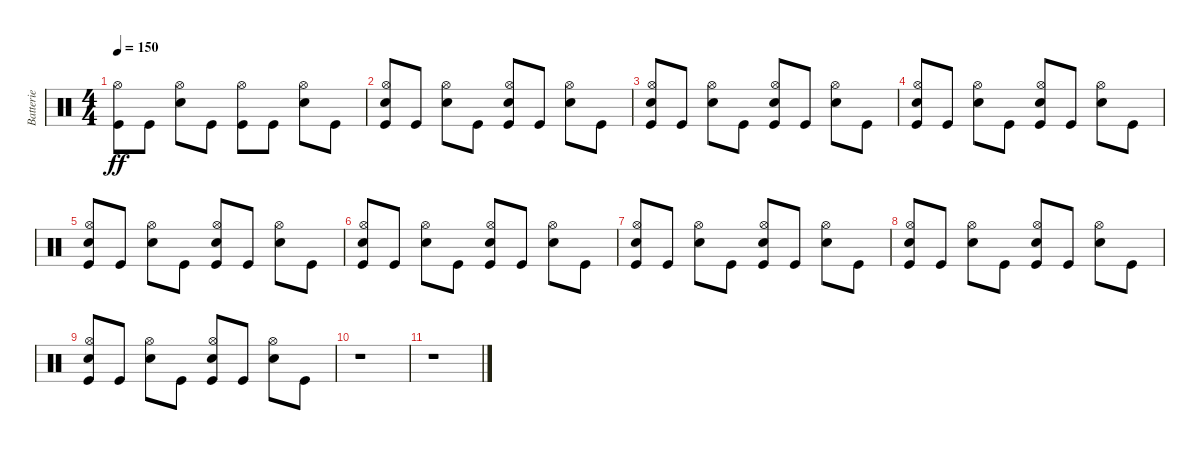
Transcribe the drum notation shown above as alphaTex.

\track ("Batterie" "Batterie") {instrument percussion}
\staff {score}
\articulation defaults
\ts (4 4)
\tempo 150
\clef neutral
\ks c
("Kick (hit)" "Hi-Hat (open)").8{dy ff} "Kick (hit)".8 ("Electric Snare (hit)" "Hi-Hat (open)").8 "Kick (hit)".8 ("Kick (hit)" "Hi-Hat (open)").8 "Kick (hit)".8 ("Electric Snare (hit)" "Hi-Hat (open)").8 "Kick (hit)".8 |
("Kick (hit)" "Hi-Hat (open)" "Electric Snare (hit)").8 "Kick (hit)".8 ("Electric Snare (hit)" "Hi-Hat (open)").8 "Kick (hit)".8 ("Kick (hit)" "Hi-Hat (open)" "Electric Snare (hit)").8 "Kick (hit)".8 ("Electric Snare (hit)" "Hi-Hat (open)").8 "Kick (hit)".8 |
("Kick (hit)" "Hi-Hat (open)" "Electric Snare (hit)").8 "Kick (hit)".8 ("Electric Snare (hit)" "Hi-Hat (open)").8 "Kick (hit)".8 ("Kick (hit)" "Hi-Hat (open)" "Electric Snare (hit)").8 "Kick (hit)".8 ("Electric Snare (hit)" "Hi-Hat (open)").8 "Kick (hit)".8 |
("Kick (hit)" "Hi-Hat (open)" "Electric Snare (hit)").8 "Kick (hit)".8 ("Electric Snare (hit)" "Hi-Hat (open)").8 "Kick (hit)".8 ("Kick (hit)" "Hi-Hat (open)" "Electric Snare (hit)").8 "Kick (hit)".8 ("Electric Snare (hit)" "Hi-Hat (open)").8 "Kick (hit)".8 |
("Kick (hit)" "Hi-Hat (open)" "Electric Snare (hit)").8 "Kick (hit)".8 ("Electric Snare (hit)" "Hi-Hat (open)").8 "Kick (hit)".8 ("Kick (hit)" "Hi-Hat (open)" "Electric Snare (hit)").8 "Kick (hit)".8 ("Electric Snare (hit)" "Hi-Hat (open)").8 "Kick (hit)".8 |
("Kick (hit)" "Hi-Hat (open)" "Electric Snare (hit)").8 "Kick (hit)".8 ("Electric Snare (hit)" "Hi-Hat (open)").8 "Kick (hit)".8 ("Kick (hit)" "Hi-Hat (open)" "Electric Snare (hit)").8 "Kick (hit)".8 ("Electric Snare (hit)" "Hi-Hat (open)").8 "Kick (hit)".8 |
("Kick (hit)" "Hi-Hat (open)" "Electric Snare (hit)").8 "Kick (hit)".8 ("Electric Snare (hit)" "Hi-Hat (open)").8 "Kick (hit)".8 ("Kick (hit)" "Hi-Hat (open)" "Electric Snare (hit)").8 "Kick (hit)".8 ("Electric Snare (hit)" "Hi-Hat (open)").8 "Kick (hit)".8 |
("Kick (hit)" "Hi-Hat (open)" "Electric Snare (hit)").8 "Kick (hit)".8 ("Electric Snare (hit)" "Hi-Hat (open)").8 "Kick (hit)".8 ("Kick (hit)" "Hi-Hat (open)" "Electric Snare (hit)").8 "Kick (hit)".8 ("Electric Snare (hit)" "Hi-Hat (open)").8 "Kick (hit)".8 |
("Kick (hit)" "Hi-Hat (open)" "Electric Snare (hit)").8 "Kick (hit)".8 ("Electric Snare (hit)" "Hi-Hat (open)").8 "Kick (hit)".8 ("Kick (hit)" "Hi-Hat (open)" "Electric Snare (hit)").8 "Kick (hit)".8 ("Electric Snare (hit)" "Hi-Hat (open)").8 "Kick (hit)".8 |
r.1 |
r.1
